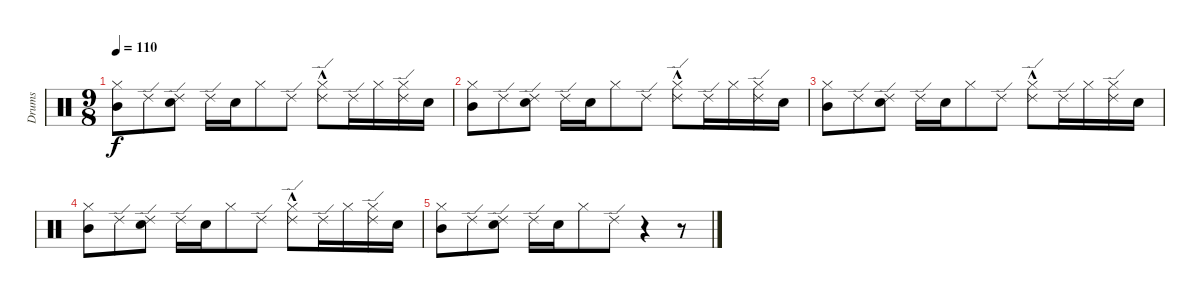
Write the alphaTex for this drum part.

\track ("Drums" "Drums") {instrument percussion}
\staff {score}
\articulation defaults
\ts (9 8)
\tempo 110
\clef neutral
\ks c
("Hi-Hat (closed)" "Mid Tom (hit)").8{dy f} "Ride (edge) 2".8 ("Snare (hit) 2" "Ride (edge) 2").8 "Ride (edge) 2".16 "Snare (hit) 2".16 "Hi-Hat (closed)".8 "Ride (edge) 2".8 ("Hi-Hat (closed)"{hac} "Ride (edge) 2").8 "Ride (edge) 2".16 "Hi-Hat (closed)".16 ("Hi-Hat (closed)" "Ride (edge) 2").16 "Snare (hit) 2".16 |
("Hi-Hat (closed)" "Mid Tom (hit)").8 "Ride (edge) 2".8 ("Snare (hit) 2" "Ride (edge) 2").8 "Ride (edge) 2".16 "Snare (hit) 2".16 "Hi-Hat (closed)".8 "Ride (edge) 2".8 ("Hi-Hat (closed)"{hac} "Ride (edge) 2").8 "Ride (edge) 2".16 "Hi-Hat (closed)".16 ("Hi-Hat (closed)" "Ride (edge) 2").16 "Snare (hit) 2".16 |
("Hi-Hat (closed)" "Mid Tom (hit)").8 "Ride (edge) 2".8 ("Snare (hit) 2" "Ride (edge) 2").8 "Ride (edge) 2".16 "Snare (hit) 2".16 "Hi-Hat (closed)".8 "Ride (edge) 2".8 ("Hi-Hat (closed)"{hac} "Ride (edge) 2").8 "Ride (edge) 2".16 "Hi-Hat (closed)".16 ("Hi-Hat (closed)" "Ride (edge) 2").16 "Snare (hit) 2".16 |
("Hi-Hat (closed)" "Mid Tom (hit)").8 "Ride (edge) 2".8 ("Snare (hit) 2" "Ride (edge) 2").8 "Ride (edge) 2".16 "Snare (hit) 2".16 "Hi-Hat (closed)".8 "Ride (edge) 2".8 ("Hi-Hat (closed)"{hac} "Ride (edge) 2").8 "Ride (edge) 2".16 "Hi-Hat (closed)".16 ("Hi-Hat (closed)" "Ride (edge) 2").16 "Snare (hit) 2".16 |
("Hi-Hat (closed)" "Mid Tom (hit)").8 "Ride (edge) 2".8 ("Snare (hit) 2" "Ride (edge) 2").8 "Ride (edge) 2".16 "Snare (hit) 2".16 "Hi-Hat (closed)".8 "Ride (edge) 2".8 r.4 r.8
